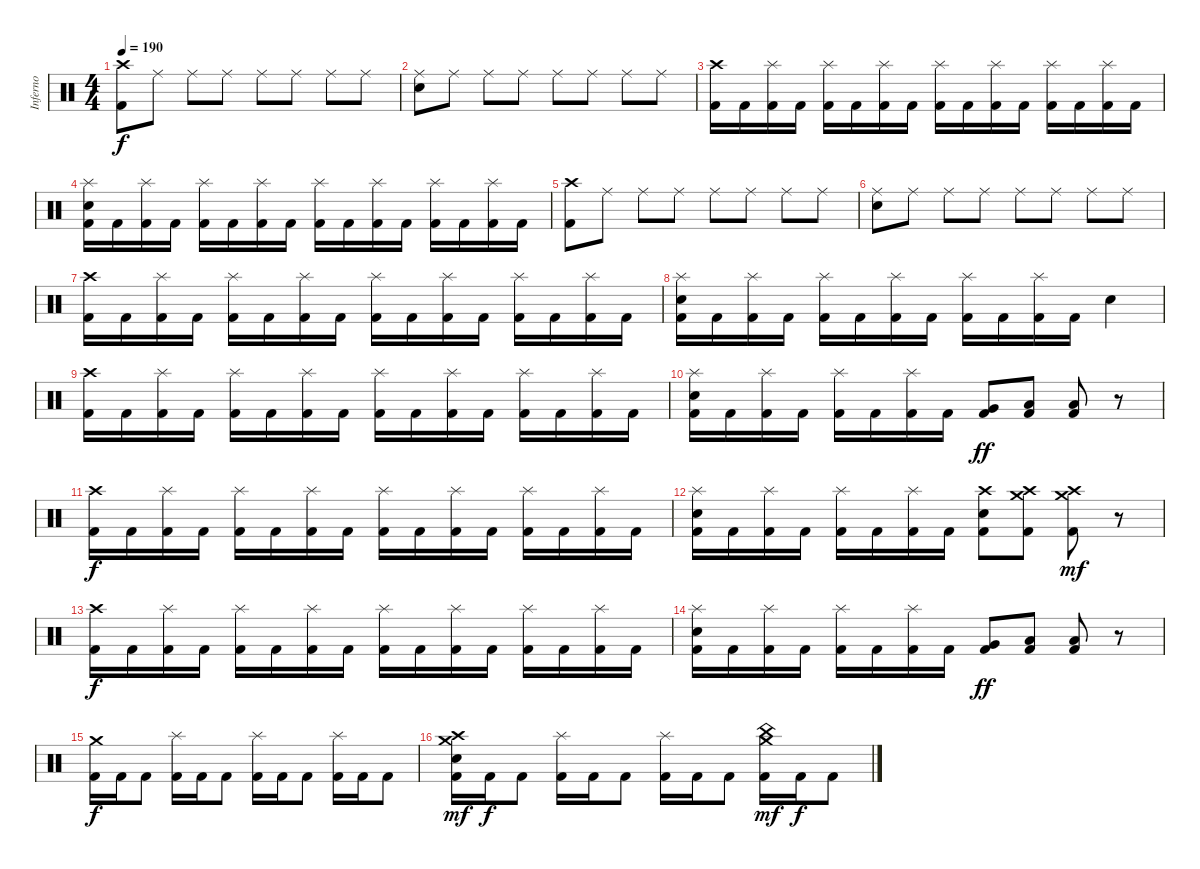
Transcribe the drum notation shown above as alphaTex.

\track ("Inferno" "Inferno") {instrument percussion}
\staff {score}
\articulation defaults
\ts (4 4)
\section ("" "")
\tempo 190
\clef neutral
\ks c
("Crash high (hit)" "Kick (hit) 2").8{dy f} "Ride (middle)".8 "Ride (middle)".8 "Ride (middle)".8 "Ride (middle)".8 "Ride (middle)".8 "Ride (middle)".8 "Ride (middle)".8 |
("Ride (middle)" "Snare (hit) 2").8 "Ride (middle)".8 "Ride (middle)".8 "Ride (middle)".8 "Ride (middle)".8 "Ride (middle)".8 "Ride (middle)".8 "Ride (middle)".8 |
("Crash high (hit)" "Kick (hit) 2").16 "Kick (hit) 2".16 ("Splash (hit)" "Kick (hit) 2").16 "Kick (hit) 2".16 ("Splash (hit)" "Kick (hit) 2").16 "Kick (hit) 2".16 ("Splash (hit)" "Kick (hit) 2").16 "Kick (hit) 2".16 ("Splash (hit)" "Kick (hit) 2").16 "Kick (hit) 2".16 ("Splash (hit)" "Kick (hit) 2").16 "Kick (hit) 2".16 ("Splash (hit)" "Kick (hit) 2").16 "Kick (hit) 2".16 ("Splash (hit)" "Kick (hit) 2").16 "Kick (hit) 2".16 |
("Splash (hit)" "Snare (hit) 2" "Kick (hit) 2").16 "Kick (hit) 2".16 ("Splash (hit)" "Kick (hit) 2").16 "Kick (hit) 2".16 ("Splash (hit)" "Kick (hit) 2").16 "Kick (hit) 2".16 ("Splash (hit)" "Kick (hit) 2").16 "Kick (hit) 2".16 ("Splash (hit)" "Kick (hit) 2").16 "Kick (hit) 2".16 ("Splash (hit)" "Kick (hit) 2").16 "Kick (hit) 2".16 ("Splash (hit)" "Kick (hit) 2").16 "Kick (hit) 2".16 ("Splash (hit)" "Kick (hit) 2").16 "Kick (hit) 2".16 |
("Crash high (hit)" "Kick (hit) 2").8 "Ride (middle)".8 "Ride (middle)".8 "Ride (middle)".8 "Ride (middle)".8 "Ride (middle)".8 "Ride (middle)".8 "Ride (middle)".8 |
("Ride (middle)" "Snare (hit) 2").8 "Ride (middle)".8 "Ride (middle)".8 "Ride (middle)".8 "Ride (middle)".8 "Ride (middle)".8 "Ride (middle)".8 "Ride (middle)".8 |
("Crash high (hit)" "Kick (hit) 2").16 "Kick (hit) 2".16 ("Splash (hit)" "Kick (hit) 2").16 "Kick (hit) 2".16 ("Splash (hit)" "Kick (hit) 2").16 "Kick (hit) 2".16 ("Splash (hit)" "Kick (hit) 2").16 "Kick (hit) 2".16 ("Splash (hit)" "Kick (hit) 2").16 "Kick (hit) 2".16 ("Splash (hit)" "Kick (hit) 2").16 "Kick (hit) 2".16 ("Splash (hit)" "Kick (hit) 2").16 "Kick (hit) 2".16 ("Splash (hit)" "Kick (hit) 2").16 "Kick (hit) 2".16 |
("Splash (hit)" "Snare (hit) 2" "Kick (hit) 2").16 "Kick (hit) 2".16 ("Splash (hit)" "Kick (hit) 2").16 "Kick (hit) 2".16 ("Splash (hit)" "Kick (hit) 2").16 "Kick (hit) 2".16 ("Splash (hit)" "Kick (hit) 2").16 "Kick (hit) 2".16 ("Splash (hit)" "Kick (hit) 2").16 "Kick (hit) 2".16 ("Splash (hit)" "Kick (hit) 2").16 "Kick (hit) 2".16 "Snare (hit) 2".4 |
\section ("" "")
("Crash high (hit)" "Kick (hit) 2").16 "Kick (hit) 2".16 ("Splash (hit)" "Kick (hit) 2").16 "Kick (hit) 2".16 ("Splash (hit)" "Kick (hit) 2").16 "Kick (hit) 2".16 ("Splash (hit)" "Kick (hit) 2").16 "Kick (hit) 2".16 ("Splash (hit)" "Kick (hit) 2").16 "Kick (hit) 2".16 ("Splash (hit)" "Kick (hit) 2").16 "Kick (hit) 2".16 ("Splash (hit)" "Kick (hit) 2").16 "Kick (hit) 2".16 ("Splash (hit)" "Kick (hit) 2").16 "Kick (hit) 2".16 |
("Splash (hit)" "Snare (hit) 2" "Kick (hit) 2").16 "Kick (hit) 2".16 ("Splash (hit)" "Kick (hit) 2").16 "Kick (hit) 2".16 ("Splash (hit)" "Kick (hit) 2").16 "Kick (hit) 2".16 ("Splash (hit)" "Kick (hit) 2").16 "Kick (hit) 2".16 ("Very Low Tom (hit)" "Kick (hit) 2").8{dy ff} ("Low Floor Tom (hit)" "Kick (hit) 2").8 ("Low Floor Tom (hit)" "Kick (hit) 2").8 r.8 |
("Crash high (hit)" "Kick (hit) 2").16{dy f} "Kick (hit) 2".16 ("Splash (hit)" "Kick (hit) 2").16 "Kick (hit) 2".16 ("Splash (hit)" "Kick (hit) 2").16 "Kick (hit) 2".16 ("Splash (hit)" "Kick (hit) 2").16 "Kick (hit) 2".16 ("Splash (hit)" "Kick (hit) 2").16 "Kick (hit) 2".16 ("Splash (hit)" "Kick (hit) 2").16 "Kick (hit) 2".16 ("Splash (hit)" "Kick (hit) 2").16 "Kick (hit) 2".16 ("Splash (hit)" "Kick (hit) 2").16 "Kick (hit) 2".16 |
("Splash (hit)" "Snare (hit) 2" "Kick (hit) 2").16 "Kick (hit) 2".16 ("Splash (hit)" "Kick (hit) 2").16 "Kick (hit) 2".16 ("Splash (hit)" "Kick (hit) 2").16 "Kick (hit) 2".16 ("Splash (hit)" "Kick (hit) 2").16 "Kick (hit) 2".16 ("Crash high (hit)" "Snare (hit) 2" "Kick (hit) 2").8 ("Crash high (hit)" "Crash medium (hit)" "Kick (hit) 2").8 ("Crash high (hit)" "Crash medium (hit)" "Kick (hit) 2").8{dy mf} r.8 |
("Crash high (hit)" "Kick (hit) 2").16{dy f} "Kick (hit) 2".16 ("Splash (hit)" "Kick (hit) 2").16 "Kick (hit) 2".16 ("Splash (hit)" "Kick (hit) 2").16 "Kick (hit) 2".16 ("Splash (hit)" "Kick (hit) 2").16 "Kick (hit) 2".16 ("Splash (hit)" "Kick (hit) 2").16 "Kick (hit) 2".16 ("Splash (hit)" "Kick (hit) 2").16 "Kick (hit) 2".16 ("Splash (hit)" "Kick (hit) 2").16 "Kick (hit) 2".16 ("Splash (hit)" "Kick (hit) 2").16 "Kick (hit) 2".16 |
("Splash (hit)" "Snare (hit) 2" "Kick (hit) 2").16 "Kick (hit) 2".16 ("Splash (hit)" "Kick (hit) 2").16 "Kick (hit) 2".16 ("Splash (hit)" "Kick (hit) 2").16 "Kick (hit) 2".16 ("Splash (hit)" "Kick (hit) 2").16 "Kick (hit) 2".16 ("Very Low Tom (hit)" "Kick (hit) 2").8{dy ff} ("Low Floor Tom (hit)" "Kick (hit) 2").8 ("Low Floor Tom (hit)" "Kick (hit) 2").8 r.8 |
("Crash medium (hit)" "Kick (hit) 2").16{dy f} "Kick (hit) 2".16 "Kick (hit) 2".8 ("Splash (hit)" "Kick (hit) 2").16 "Kick (hit) 2".16 "Kick (hit) 2".8 ("Splash (hit)" "Kick (hit) 2").16 "Kick (hit) 2".16 "Kick (hit) 2".8 ("Splash (hit)" "Kick (hit) 2").16 "Kick (hit) 2".16 "Kick (hit) 2".8 |
("Crash medium (hit)" "Crash high (hit)" "Snare (hit) 2" "Kick (hit) 2").16{dy mf} "Kick (hit) 2".16{dy f} "Kick (hit) 2".8 ("Splash (hit)" "Kick (hit) 2").16 "Kick (hit) 2".16 "Kick (hit) 2".8 ("Splash (hit)" "Kick (hit) 2").16 "Kick (hit) 2".16 "Kick (hit) 2".8 ("China (hit)" "Crash medium (hit)" "Kick (hit) 2").16{dy mf} "Kick (hit) 2".16{dy f} "Kick (hit) 2".8
